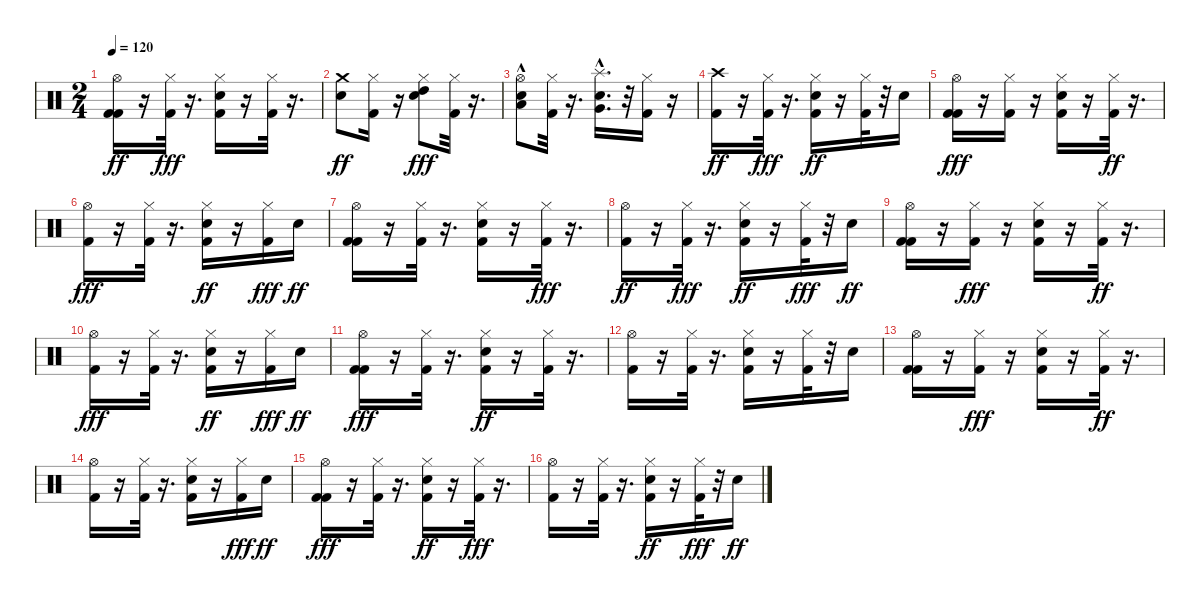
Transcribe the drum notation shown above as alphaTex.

\track "" {instrument percussion}
\staff {score}
\articulation defaults
\ts (2 4)
\tempo 120
\clef neutral
\ks c
("Kick (hit) 2" "Hi-Hat (open)" "Kick (hit) 2").16{dy ff} r.16 ("Kick (hit) 2" "Hi-Hat (closed)").32{dy fff} r.16{d} ("Snare (hit) 2" "Kick (hit) 2" "Hi-Hat (closed)").16 r.16 ("Kick (hit) 2" "Hi-Hat (closed)").32 r.16{d} |
("Snare (hit) 2" "Crash medium (hit)").8{dy ff} ("Hi-Hat (closed)" "Kick (hit) 2").16 r.16 ("Snare (hit) 2" "Hi-Hat (closed)" "High Tom (hit)").8{dy fff} ("Kick (hit) 2" "Hi-Hat (closed)").32 r.16{d} |
("Low Tom (hit)"{hac} "Snare (hit) 2" "Hi-Hat (open)").8 ("Kick (hit) 2" "Hi-Hat (closed)").32 r.16{d} ("Splash (hit)" "Snare (hit) 2"{hac} "Very Low Tom (hit)").16{d} r.32 ("Kick (hit) 2" "Hi-Hat (closed)").16 r.16 |
("Crash high (hit)" "Kick (hit) 2").16{dy ff} r.16 ("Kick (hit) 2" "Hi-Hat (closed)").32{dy fff} r.16{d} ("Snare (hit) 2" "Hi-Hat (closed)" "Kick (hit) 2").16{dy ff} r.16 ("Hi-Hat (closed)" "Kick (hit) 2").32 r.32 "Snare (hit) 2".16 |
("Kick (hit) 2" "Kick (hit) 2" "Hi-Hat (open)").16{dy fff} r.16 ("Kick (hit) 2" "Hi-Hat (closed)").16 r.16 ("Kick (hit) 2" "Snare (hit) 2" "Hi-Hat (closed)").16 r.16 ("Hi-Hat (closed)" "Kick (hit) 2").32{dy ff} r.16{d} |
("Kick (hit) 2" "Hi-Hat (open)").16{dy fff} r.16 ("Kick (hit) 2" "Hi-Hat (closed)").32 r.16{d} ("Kick (hit) 2" "Hi-Hat (closed)" "Snare (hit) 2").16{dy ff} r.16 ("Kick (hit) 2" "Hi-Hat (closed)").16{dy fff} "Snare (hit) 2".16{dy ff} |
("Kick (hit) 2" "Hi-Hat (open)" "Kick (hit) 2").16 r.16 ("Hi-Hat (closed)" "Kick (hit) 2").32 r.16{d} ("Hi-Hat (closed)" "Kick (hit) 2" "Snare (hit) 2").16 r.16 ("Kick (hit) 2" "Hi-Hat (closed)").32{dy fff} r.16{d} |
("Hi-Hat (open)" "Kick (hit) 2").16{dy ff} r.16 ("Kick (hit) 2" "Hi-Hat (closed)").32{dy fff} r.16{d} ("Kick (hit) 2" "Hi-Hat (closed)" "Snare (hit) 2").16{dy ff} r.16 ("Kick (hit) 2" "Hi-Hat (closed)").32{dy fff} r.32 "Snare (hit) 2".16{dy ff} |
("Hi-Hat (open)" "Kick (hit) 2" "Kick (hit) 2").16 r.16 ("Kick (hit) 2" "Hi-Hat (closed)").16{dy fff} r.16 ("Kick (hit) 2" "Snare (hit) 2" "Hi-Hat (closed)").16 r.16 ("Hi-Hat (closed)" "Kick (hit) 2").32{dy ff} r.16{d} |
("Kick (hit) 2" "Hi-Hat (open)").16{dy fff} r.16 ("Kick (hit) 2" "Hi-Hat (closed)").32 r.16{d} ("Kick (hit) 2" "Hi-Hat (closed)" "Snare (hit) 2").16{dy ff} r.16 ("Kick (hit) 2" "Hi-Hat (closed)").16{dy fff} "Snare (hit) 2".16{dy ff} |
("Kick (hit) 2" "Kick (hit) 2" "Hi-Hat (open)").16{dy fff} r.16 ("Kick (hit) 2" "Hi-Hat (closed)").32 r.16{d} ("Hi-Hat (closed)" "Kick (hit) 2" "Snare (hit) 2").16{dy ff} r.16 ("Hi-Hat (closed)" "Kick (hit) 2").32 r.16{d} |
("Hi-Hat (open)" "Kick (hit) 2").16 r.16 ("Hi-Hat (closed)" "Kick (hit) 2").32 r.16{d} ("Kick (hit) 2" "Hi-Hat (closed)" "Snare (hit) 2").16 r.16 ("Hi-Hat (closed)" "Kick (hit) 2").32 r.32 "Snare (hit) 2".16 |
("Kick (hit) 2" "Hi-Hat (open)" "Kick (hit) 2").16 r.16 ("Kick (hit) 2" "Hi-Hat (closed)").16{dy fff} r.16 ("Kick (hit) 2" "Snare (hit) 2" "Hi-Hat (closed)").16 r.16 ("Hi-Hat (closed)" "Kick (hit) 2").32{dy ff} r.16{d} |
("Hi-Hat (open)" "Kick (hit) 2").16 r.16 ("Hi-Hat (closed)" "Kick (hit) 2").32 r.16{d} ("Snare (hit) 2" "Hi-Hat (closed)" "Kick (hit) 2").16 r.16 ("Kick (hit) 2" "Hi-Hat (closed)").16{dy fff} "Snare (hit) 2".16{dy ff} |
("Kick (hit) 2" "Kick (hit) 2" "Hi-Hat (open)").16{dy fff} r.16 ("Kick (hit) 2" "Hi-Hat (closed)").32 r.16{d} ("Hi-Hat (closed)" "Kick (hit) 2" "Snare (hit) 2").16{dy ff} r.16 ("Kick (hit) 2" "Hi-Hat (closed)").32{dy fff} r.16{d} |
("Kick (hit) 2" "Hi-Hat (open)").16 r.16 ("Kick (hit) 2" "Hi-Hat (closed)").32 r.16{d} ("Snare (hit) 2" "Hi-Hat (closed)" "Kick (hit) 2").16{dy ff} r.16 ("Kick (hit) 2" "Hi-Hat (closed)").32{dy fff} r.32 "Snare (hit) 2".16{dy ff}
